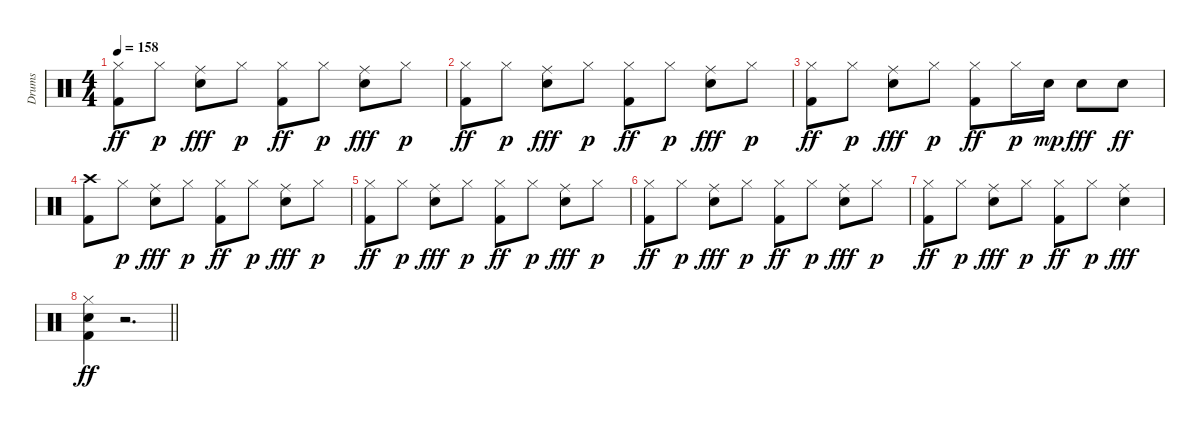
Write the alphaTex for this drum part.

\track ("Drums" "Drums") {instrument percussion}
\staff {score}
\articulation defaults
\ts (4 4)
\tempo 158
\clef neutral
\ks c
("Hi-Hat (closed)" "Kick (hit) 2").8{dy ff} "Hi-Hat (closed)".8{dy p} ("Ride (middle)" "Snare (hit) 2").8{dy fff} "Hi-Hat (closed)".8{dy p} ("Hi-Hat (closed)" "Kick (hit) 2").8{dy ff} "Hi-Hat (closed)".8{dy p} ("Ride (middle)" "Snare (hit) 2").8{dy fff} "Hi-Hat (closed)".8{dy p} |
("Hi-Hat (closed)" "Kick (hit) 2").8{dy ff} "Hi-Hat (closed)".8{dy p} ("Ride (middle)" "Snare (hit) 2").8{dy fff} "Hi-Hat (closed)".8{dy p} ("Hi-Hat (closed)" "Kick (hit) 2").8{dy ff} "Hi-Hat (closed)".8{dy p} ("Ride (middle)" "Snare (hit) 2").8{dy fff} "Hi-Hat (closed)".8{dy p} |
("Hi-Hat (closed)" "Kick (hit) 2").8{dy ff} "Hi-Hat (closed)".8{dy p} ("Ride (middle)" "Snare (hit) 2").8{dy fff} "Hi-Hat (closed)".8{dy p} ("Hi-Hat (closed)" "Kick (hit) 2").8{dy ff} "Hi-Hat (closed)".16{dy p} "Snare (hit) 2".16{dy mp} "Snare (hit) 2".8{dy fff} "Snare (hit) 2".8{dy ff} |
("Crash high (hit)" "Kick (hit) 2").8 "Hi-Hat (closed)".8{dy p} ("Ride (middle)" "Snare (hit) 2").8{dy fff} "Hi-Hat (closed)".8{dy p} ("Hi-Hat (closed)" "Kick (hit) 2").8{dy ff} "Hi-Hat (closed)".8{dy p} ("Ride (middle)" "Snare (hit) 2").8{dy fff} "Hi-Hat (closed)".8{dy p} |
("Hi-Hat (closed)" "Kick (hit) 2").8{dy ff} "Hi-Hat (closed)".8{dy p} ("Ride (middle)" "Snare (hit) 2").8{dy fff} "Hi-Hat (closed)".8{dy p} ("Hi-Hat (closed)" "Kick (hit) 2").8{dy ff} "Hi-Hat (closed)".8{dy p} ("Ride (middle)" "Snare (hit) 2").8{dy fff} "Hi-Hat (closed)".8{dy p} |
("Hi-Hat (closed)" "Kick (hit) 2").8{dy ff} "Hi-Hat (closed)".8{dy p} ("Ride (middle)" "Snare (hit) 2").8{dy fff} "Hi-Hat (closed)".8{dy p} ("Hi-Hat (closed)" "Kick (hit) 2").8{dy ff} "Hi-Hat (closed)".8{dy p} ("Ride (middle)" "Snare (hit) 2").8{dy fff} "Hi-Hat (closed)".8{dy p} |
("Hi-Hat (closed)" "Kick (hit) 2").8{dy ff} "Hi-Hat (closed)".8{dy p} ("Ride (middle)" "Snare (hit) 2").8{dy fff} "Hi-Hat (closed)".8{dy p} ("Hi-Hat (closed)" "Kick (hit) 2").8{dy ff} "Hi-Hat (closed)".8{dy p} ("Ride (middle)" "Snare (hit) 2").4{dy fff} |
\barLineRight lightlight
("Hi-Hat (closed)" "Kick (hit) 2" "Snare (hit) 2").4{dy ff} r.2{d}
